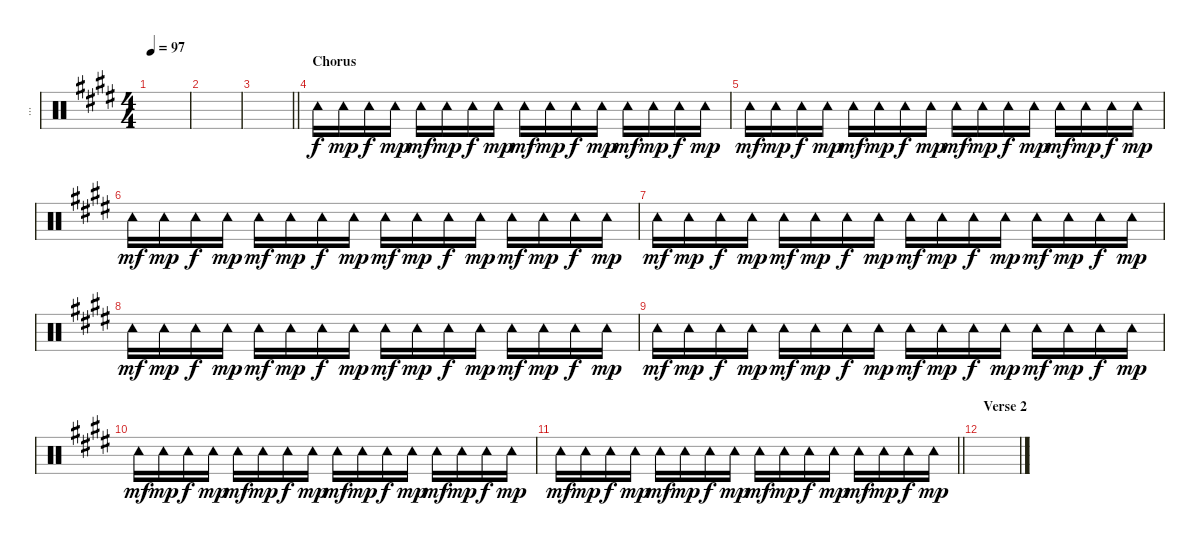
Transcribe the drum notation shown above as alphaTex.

\track ("..." "...") {instrument percussion}
\staff {score}
\articulation defaults
\ts (4 4)
\tempo 97
\clef neutral
\ks c#minor
|
|
\barLineRight lightlight
|
\section ("" "Chorus")
"Tambourine (hit)".16 "Tambourine (hit)".16{dy mp} "Tambourine (hit)".16{dy f} "Tambourine (hit)".16{dy mp} "Tambourine (hit)".16{dy mf} "Tambourine (hit)".16{dy mp} "Tambourine (hit)".16{dy f} "Tambourine (hit)".16{dy mp} "Tambourine (hit)".16{dy mf} "Tambourine (hit)".16{dy mp} "Tambourine (hit)".16{dy f} "Tambourine (hit)".16{dy mp} "Tambourine (hit)".16{dy mf} "Tambourine (hit)".16{dy mp} "Tambourine (hit)".16{dy f} "Tambourine (hit)".16{dy mp} |
"Tambourine (hit)".16{dy mf} "Tambourine (hit)".16{dy mp} "Tambourine (hit)".16{dy f} "Tambourine (hit)".16{dy mp} "Tambourine (hit)".16{dy mf} "Tambourine (hit)".16{dy mp} "Tambourine (hit)".16{dy f} "Tambourine (hit)".16{dy mp} "Tambourine (hit)".16{dy mf} "Tambourine (hit)".16{dy mp} "Tambourine (hit)".16{dy f} "Tambourine (hit)".16{dy mp} "Tambourine (hit)".16{dy mf} "Tambourine (hit)".16{dy mp} "Tambourine (hit)".16{dy f} "Tambourine (hit)".16{dy mp} |
"Tambourine (hit)".16{dy mf} "Tambourine (hit)".16{dy mp} "Tambourine (hit)".16{dy f} "Tambourine (hit)".16{dy mp} "Tambourine (hit)".16{dy mf} "Tambourine (hit)".16{dy mp} "Tambourine (hit)".16{dy f} "Tambourine (hit)".16{dy mp} "Tambourine (hit)".16{dy mf} "Tambourine (hit)".16{dy mp} "Tambourine (hit)".16{dy f} "Tambourine (hit)".16{dy mp} "Tambourine (hit)".16{dy mf} "Tambourine (hit)".16{dy mp} "Tambourine (hit)".16{dy f} "Tambourine (hit)".16{dy mp} |
"Tambourine (hit)".16{dy mf} "Tambourine (hit)".16{dy mp} "Tambourine (hit)".16{dy f} "Tambourine (hit)".16{dy mp} "Tambourine (hit)".16{dy mf} "Tambourine (hit)".16{dy mp} "Tambourine (hit)".16{dy f} "Tambourine (hit)".16{dy mp} "Tambourine (hit)".16{dy mf} "Tambourine (hit)".16{dy mp} "Tambourine (hit)".16{dy f} "Tambourine (hit)".16{dy mp} "Tambourine (hit)".16{dy mf} "Tambourine (hit)".16{dy mp} "Tambourine (hit)".16{dy f} "Tambourine (hit)".16{dy mp} |
"Tambourine (hit)".16{dy mf} "Tambourine (hit)".16{dy mp} "Tambourine (hit)".16{dy f} "Tambourine (hit)".16{dy mp} "Tambourine (hit)".16{dy mf} "Tambourine (hit)".16{dy mp} "Tambourine (hit)".16{dy f} "Tambourine (hit)".16{dy mp} "Tambourine (hit)".16{dy mf} "Tambourine (hit)".16{dy mp} "Tambourine (hit)".16{dy f} "Tambourine (hit)".16{dy mp} "Tambourine (hit)".16{dy mf} "Tambourine (hit)".16{dy mp} "Tambourine (hit)".16{dy f} "Tambourine (hit)".16{dy mp} |
"Tambourine (hit)".16{dy mf} "Tambourine (hit)".16{dy mp} "Tambourine (hit)".16{dy f} "Tambourine (hit)".16{dy mp} "Tambourine (hit)".16{dy mf} "Tambourine (hit)".16{dy mp} "Tambourine (hit)".16{dy f} "Tambourine (hit)".16{dy mp} "Tambourine (hit)".16{dy mf} "Tambourine (hit)".16{dy mp} "Tambourine (hit)".16{dy f} "Tambourine (hit)".16{dy mp} "Tambourine (hit)".16{dy mf} "Tambourine (hit)".16{dy mp} "Tambourine (hit)".16{dy f} "Tambourine (hit)".16{dy mp} |
"Tambourine (hit)".16{dy mf} "Tambourine (hit)".16{dy mp} "Tambourine (hit)".16{dy f} "Tambourine (hit)".16{dy mp} "Tambourine (hit)".16{dy mf} "Tambourine (hit)".16{dy mp} "Tambourine (hit)".16{dy f} "Tambourine (hit)".16{dy mp} "Tambourine (hit)".16{dy mf} "Tambourine (hit)".16{dy mp} "Tambourine (hit)".16{dy f} "Tambourine (hit)".16{dy mp} "Tambourine (hit)".16{dy mf} "Tambourine (hit)".16{dy mp} "Tambourine (hit)".16{dy f} "Tambourine (hit)".16{dy mp} |
\barLineRight lightlight "Tambourine (hit)".16{dy mf} "Tambourine (hit)".16{dy mp} "Tambourine (hit)".16{dy f} "Tambourine (hit)".16{dy mp} "Tambourine (hit)".16{dy mf} "Tambourine (hit)".16{dy mp} "Tambourine (hit)".16{dy f} "Tambourine (hit)".16{dy mp} "Tambourine (hit)".16{dy mf} "Tambourine (hit)".16{dy mp} "Tambourine (hit)".16{dy f} "Tambourine (hit)".16{dy mp} "Tambourine (hit)".16{dy mf} "Tambourine (hit)".16{dy mp} "Tambourine (hit)".16{dy f} "Tambourine (hit)".16{dy mp}
|
\section ("" "Verse 2")
